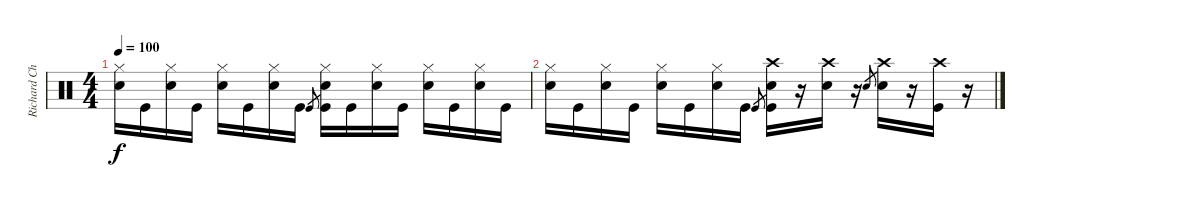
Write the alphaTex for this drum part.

\track ("Richard Chadwick - Drums" "Richard Ch") {instrument percussion}
\staff {score}
\articulation defaults
\ts (4 4)
\tempo 100
\clef neutral
\ks c
("Hi-Hat (closed)" "Snare (hit) 2").16{dy f} "Kick (hit)".16 ("Hi-Hat (closed)" "Snare (hit) 2").16 "Kick (hit)".16 ("Hi-Hat (closed)" "Snare (hit) 2").16 "Kick (hit)".16 ("Hi-Hat (closed)" "Snare (hit) 2").16 "Kick (hit)".16 "Kick (hit)".8{gr} ("Hi-Hat (closed)" "Snare (hit) 2" "Kick (hit)").16 "Kick (hit)".16 ("Hi-Hat (closed)" "Snare (hit) 2").16 "Kick (hit)".16 ("Hi-Hat (closed)" "Snare (hit) 2").16 "Kick (hit)".16 ("Hi-Hat (closed)" "Snare (hit) 2").16 "Kick (hit)".16 |
("Hi-Hat (closed)" "Snare (hit) 2").16 "Kick (hit)".16 ("Hi-Hat (closed)" "Snare (hit) 2").16 "Kick (hit)".16 ("Hi-Hat (closed)" "Snare (hit) 2").16 "Kick (hit)".16 ("Hi-Hat (closed)" "Snare (hit) 2").16 "Kick (hit)".16 "Kick (hit)".8{gr} ("Crash high (hit)" "Snare (hit) 2" "Kick (hit)").16 r.16 ("Crash high (hit)" "Snare (hit) 2").16 r.16 "Snare (hit) 2".8{gr} ("Crash high (hit)" "Snare (hit) 2").16 r.16 ("Crash high (hit)" "Kick (hit)").16 r.16
